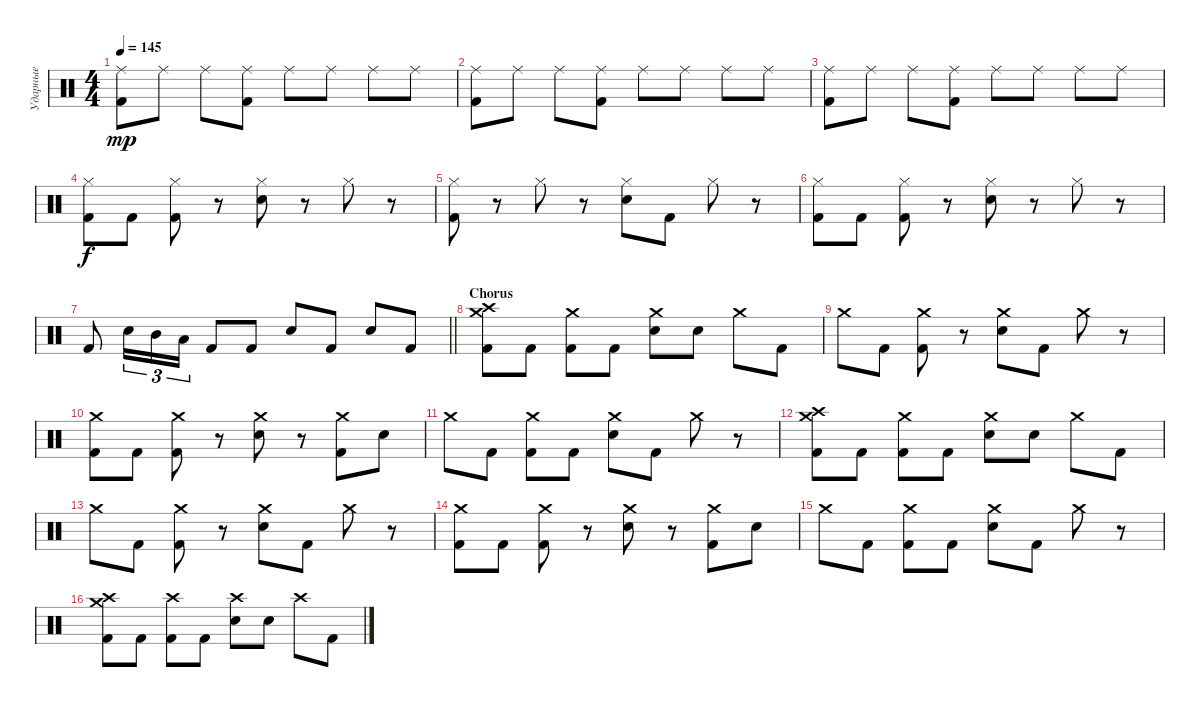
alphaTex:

\track ("Ударные" "Ударные") {instrument percussion}
\staff {score}
\articulation defaults
\ts (4 4)
\tempo 145
\clef neutral
\ks c
("Ride (middle)" "Kick (hit) 2").8{dy mp} "Ride (middle)".8 "Ride (middle)".8 ("Ride (middle)" "Kick (hit) 2").8 "Ride (middle)".8 "Ride (middle)".8 "Ride (middle)".8 "Ride (middle)".8 |
("Ride (middle)" "Kick (hit) 2").8 "Ride (middle)".8 "Ride (middle)".8 ("Ride (middle)" "Kick (hit) 2").8 "Ride (middle)".8 "Ride (middle)".8 "Ride (middle)".8 "Ride (middle)".8 |
("Ride (middle)" "Kick (hit) 2").8 "Ride (middle)".8 "Ride (middle)".8 ("Ride (middle)" "Kick (hit) 2").8 "Ride (middle)".8 "Ride (middle)".8 "Ride (middle)".8 "Ride (middle)".8 |
("Hi-Hat (closed)" "Kick (hit) 2").8{dy f} "Kick (hit) 2".8 ("Hi-Hat (closed)" "Kick (hit) 2").8 r.8 ("Hi-Hat (closed)" "Snare (hit) 2").8 r.8 "Hi-Hat (closed)".8 r.8 |
("Hi-Hat (closed)" "Kick (hit) 2").8 r.8 "Hi-Hat (closed)".8 r.8 ("Hi-Hat (closed)" "Snare (hit) 2").8 "Kick (hit) 2".8 "Hi-Hat (closed)".8 r.8 |
("Hi-Hat (closed)" "Kick (hit) 2").8 "Kick (hit) 2".8 ("Hi-Hat (closed)" "Kick (hit) 2").8 r.8 ("Hi-Hat (closed)" "Snare (hit) 2").8 r.8 "Hi-Hat (closed)".8 r.8 |
\barLineRight lightlight "Kick (hit) 2".8 "Snare (hit) 2".16{tu (3 2)} "Mid Tom (hit)".16{tu (3 2)} "Low Tom (hit)".16{tu (3 2)} "Kick (hit) 2".8 "Kick (hit) 2".8 "Snare (hit) 2".8 "Kick (hit) 2".8 "Snare (hit) 2".8 "Kick (hit) 2".8
|
\section ("" "Chorus")
("Crash high (hit)" "Crash medium (hit)" "Kick (hit) 2").8 "Kick (hit) 2".8 ("Crash medium (hit)" "Kick (hit) 2").8 "Kick (hit) 2".8 ("Crash medium (hit)" "Snare (hit) 2").8 "Snare (hit) 2".8 "Crash medium (hit)".8 "Kick (hit) 2".8 |
"Crash medium (hit)".8 "Kick (hit) 2".8 ("Crash medium (hit)" "Kick (hit) 2").8 r.8 ("Crash medium (hit)" "Snare (hit) 2").8 "Kick (hit) 2".8 "Crash medium (hit)".8 r.8 |
("Crash medium (hit)" "Kick (hit) 2").8 "Kick (hit) 2".8 ("Crash medium (hit)" "Kick (hit) 2").8 r.8 ("Crash medium (hit)" "Snare (hit) 2").8 r.8 ("Crash medium (hit)" "Kick (hit) 2").8 "Snare (hit) 2".8 |
"Crash medium (hit)".8 "Kick (hit) 2".8 ("Crash medium (hit)" "Kick (hit) 2").8 "Kick (hit) 2".8 ("Crash medium (hit)" "Snare (hit) 2").8 "Kick (hit) 2".8 "Crash medium (hit)".8 r.8 |
("Crash high (hit)" "Crash medium (hit)" "Kick (hit) 2").8 "Kick (hit) 2".8 ("Crash medium (hit)" "Kick (hit) 2").8 "Kick (hit) 2".8 ("Crash medium (hit)" "Snare (hit) 2").8 "Snare (hit) 2".8 "Crash medium (hit)".8 "Kick (hit) 2".8 |
"Crash medium (hit)".8 "Kick (hit) 2".8 ("Crash medium (hit)" "Kick (hit) 2").8 r.8 ("Crash medium (hit)" "Snare (hit) 2").8 "Kick (hit) 2".8 "Crash medium (hit)".8 r.8 |
("Crash medium (hit)" "Kick (hit) 2").8 "Kick (hit) 2".8 ("Crash medium (hit)" "Kick (hit) 2").8 r.8 ("Crash medium (hit)" "Snare (hit) 2").8 r.8 ("Crash medium (hit)" "Kick (hit) 2").8 "Snare (hit) 2".8 |
"Crash medium (hit)".8 "Kick (hit) 2".8 ("Crash medium (hit)" "Kick (hit) 2").8 "Kick (hit) 2".8 ("Crash medium (hit)" "Snare (hit) 2").8 "Kick (hit) 2".8 "Crash medium (hit)".8 r.8 |
("Crash medium (hit)" "Crash high (hit)" "Kick (hit) 2").8 "Kick (hit) 2".8 ("Crash high (hit)" "Kick (hit) 2").8 "Kick (hit) 2".8 ("Crash high (hit)" "Snare (hit) 2").8 "Snare (hit) 2".8 "Crash high (hit)".8 "Kick (hit) 2".8
